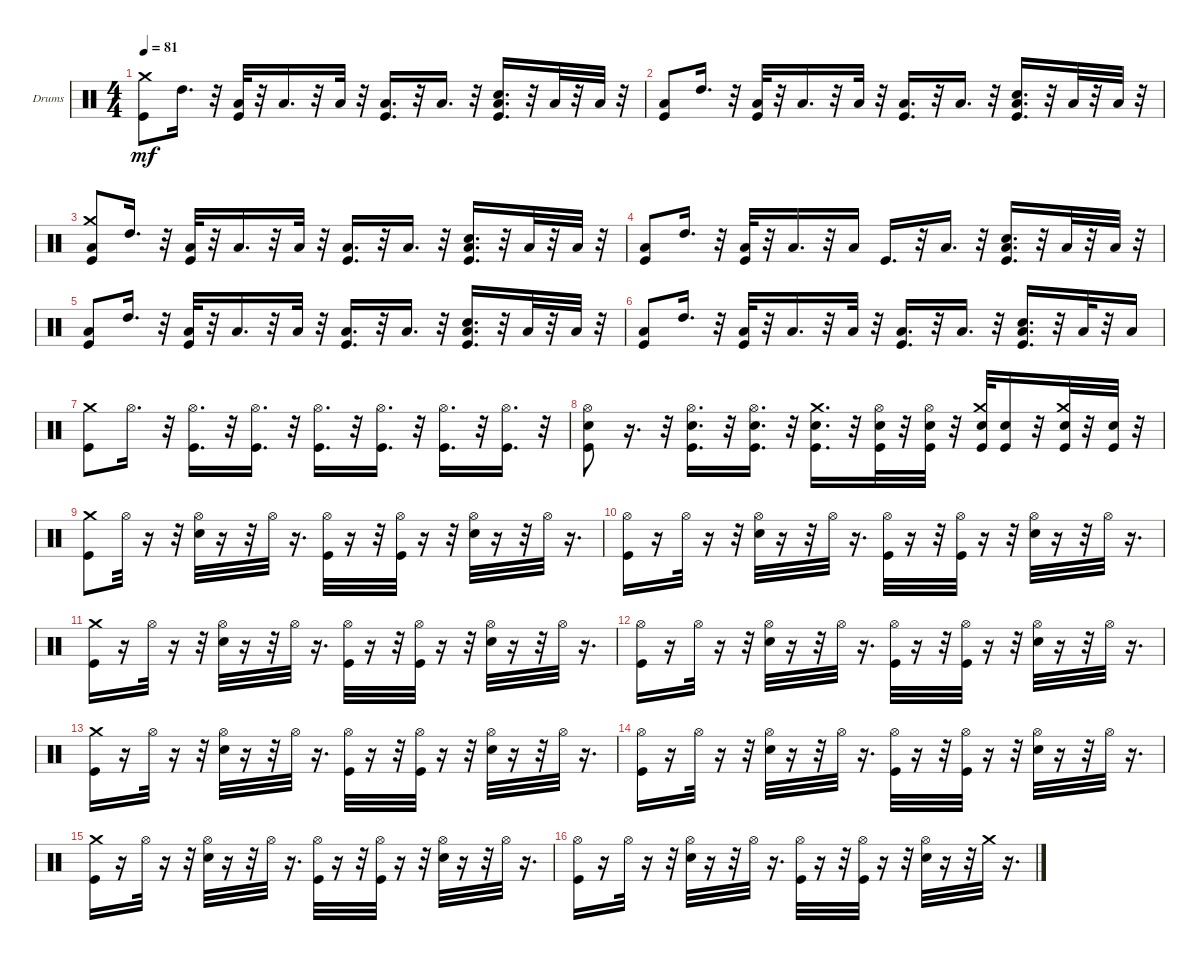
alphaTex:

\bracketExtendMode groupsimilarinstruments
\firstSystemTrackNameOrientation horizontal
\otherSystemsTrackNameOrientation horizontal
\track ("DRUMS" "Drums") {instrument percussion}
\staff {score}
\articulation defaults
\ts (4 4)
\tempo 81
\clef neutral
\ks c
("Kick (hit)" "Crash medium (hit)").8{dy mf} "High Tom (hit)".16{d} r.32 ("Kick (hit)" "Low Tom (hit)").32 r.32 "Low Tom (hit)".16{d} r.32 "Low Tom (hit)".32 r.32 ("Kick (hit)" "Low Tom (hit)").16{d} r.32 "Low Tom (hit)".16{d} r.32 ("Kick (hit)" "Snare (hit) 2" "Low Tom (hit)").16{d} r.32 "Low Tom (hit)".32 r.32 "Low Tom (hit)".32 r.32 |
("Kick (hit)" "Low Tom (hit)").8 "High Tom (hit)".16{d} r.32 ("Kick (hit)" "Low Tom (hit)").32 r.32 "Low Tom (hit)".16{d} r.32 "Low Tom (hit)".32 r.32 ("Kick (hit)" "Low Tom (hit)").16{d} r.32 "Low Tom (hit)".16{d} r.32 ("Kick (hit)" "Snare (hit) 2" "Low Tom (hit)").16{d} r.32 "Low Tom (hit)".32 r.32 "Low Tom (hit)".32 r.32 |
("Kick (hit)" "Low Tom (hit)" "Crash medium (hit)").8 "High Tom (hit)".16{d} r.32 ("Kick (hit)" "Low Tom (hit)").32 r.32 "Low Tom (hit)".16{d} r.32 "Low Tom (hit)".32 r.32 ("Kick (hit)" "Low Tom (hit)").16{d} r.32 "Low Tom (hit)".16{d} r.32 ("Kick (hit)" "Snare (hit) 2" "Low Tom (hit)").16{d} r.32 "Low Tom (hit)".32 r.32 "Low Tom (hit)".32 r.32 |
("Kick (hit)" "Low Tom (hit)").8 "High Tom (hit)".16{d} r.32 ("Kick (hit)" "Low Tom (hit)").32 r.32 "Low Tom (hit)".16{d} r.32 "Low Tom (hit)".16 "Kick (hit)".16{d} r.32 "Low Tom (hit)".16{d} r.32 ("Kick (hit)" "Snare (hit) 2" "Low Tom (hit)").16{d} r.32 "Low Tom (hit)".32 r.32 "Low Tom (hit)".32 r.32 |
("Kick (hit)" "Low Tom (hit)").8 "High Tom (hit)".16{d} r.32 ("Kick (hit)" "Low Tom (hit)").32 r.32 "Low Tom (hit)".16{d} r.32 "Low Tom (hit)".32 r.32 ("Kick (hit)" "Low Tom (hit)").16{d} r.32 "Low Tom (hit)".16{d} r.32 ("Kick (hit)" "Snare (hit) 2" "Low Tom (hit)").16{d} r.32 "Low Tom (hit)".32 r.32 "Low Tom (hit)".32 r.32 |
("Kick (hit)" "Low Tom (hit)").8 "High Tom (hit)".16{d} r.32 ("Kick (hit)" "Low Tom (hit)").32 r.32 "Low Tom (hit)".16{d} r.32 "Low Tom (hit)".32 r.32 ("Kick (hit)" "Low Tom (hit)").16{d} r.32 "Low Tom (hit)".16{d} r.32 ("Kick (hit)" "Snare (hit) 2" "Low Tom (hit)").16{d} r.32 "Low Tom (hit)".32 r.32 "Low Tom (hit)".16 |
("Kick (hit)" "Crash medium (hit)").8 "Hi-Hat (open)".16{d} r.32 ("Kick (hit)" "Hi-Hat (open)").16{d} r.32 ("Kick (hit)" "Hi-Hat (open)").16{d} r.32 ("Kick (hit)" "Hi-Hat (open)").16{d} r.32 ("Kick (hit)" "Hi-Hat (open)").16{d} r.32 ("Kick (hit)" "Hi-Hat (open)").16{d} r.32 ("Kick (hit)" "Hi-Hat (open)").16{d} r.32 |
("Kick (hit)" "Snare (hit) 2" "Hi-Hat (open)").8 r.16{d} r.32 ("Kick (hit)" "Snare (hit) 2" "Hi-Hat (open)").16{d} r.32 ("Kick (hit)" "Snare (hit) 2" "Hi-Hat (open)").16{d} r.32 ("Kick (hit)" "Snare (hit) 2" "Crash medium (hit)").16{d} r.32 ("Kick (hit)" "Snare (hit) 2" "Hi-Hat (open)").32 r.32 ("Kick (hit)" "Snare (hit) 2" "Hi-Hat (open)").32 r.32 ("Kick (hit)" "Snare (hit) 2" "Crash medium (hit)").32 ("Kick (hit)" "Snare (hit) 2").16 r.32 ("Kick (hit)" "Snare (hit) 2" "Crash medium (hit)").32 r.32 ("Kick (hit)" "Snare (hit) 2").32 r.32 |
("Kick (hit)" "Crash medium (hit)").8 "Hi-Hat (open)".32 r.16 r.32 ("Snare (hit) 2" "Hi-Hat (open)").32 r.16 r.32 "Hi-Hat (open)".32 r.16{d} ("Kick (hit)" "Hi-Hat (open)").32 r.16 r.32 ("Kick (hit)" "Hi-Hat (open)").32 r.16 r.32 ("Snare (hit) 2" "Hi-Hat (open)").32 r.16 r.32 "Hi-Hat (open)".32 r.16{d} |
("Kick (hit)" "Hi-Hat (open)").16 r.16 "Hi-Hat (open)".32 r.16 r.32 ("Snare (hit) 2" "Hi-Hat (open)").32 r.16 r.32 "Hi-Hat (open)".32 r.16{d} ("Kick (hit)" "Hi-Hat (open)").32 r.16 r.32 ("Kick (hit)" "Hi-Hat (open)").32 r.16 r.32 ("Snare (hit) 2" "Hi-Hat (open)").32 r.16 r.32 "Hi-Hat (open)".32 r.16{d} |
("Kick (hit)" "Crash medium (hit)").16 r.16 "Hi-Hat (open)".32 r.16 r.32 ("Snare (hit) 2" "Hi-Hat (open)").32 r.16 r.32 "Hi-Hat (open)".32 r.16{d} ("Kick (hit)" "Hi-Hat (open)").32 r.16 r.32 ("Kick (hit)" "Hi-Hat (open)").32 r.16 r.32 ("Snare (hit) 2" "Hi-Hat (open)").32 r.16 r.32 "Hi-Hat (open)".32 r.16{d} |
("Kick (hit)" "Hi-Hat (open)").16 r.16 "Hi-Hat (open)".32 r.16 r.32 ("Snare (hit) 2" "Hi-Hat (open)").32 r.16 r.32 "Hi-Hat (open)".32 r.16{d} ("Kick (hit)" "Hi-Hat (open)").32 r.16 r.32 ("Kick (hit)" "Hi-Hat (open)").32 r.16 r.32 ("Snare (hit) 2" "Hi-Hat (open)").32 r.16 r.32 "Hi-Hat (open)".32 r.16{d} |
("Kick (hit)" "Crash medium (hit)").16 r.16 "Hi-Hat (open)".32 r.16 r.32 ("Snare (hit) 2" "Hi-Hat (open)").32 r.16 r.32 "Hi-Hat (open)".32 r.16{d} ("Kick (hit)" "Hi-Hat (open)").32 r.16 r.32 ("Kick (hit)" "Hi-Hat (open)").32 r.16 r.32 ("Snare (hit) 2" "Hi-Hat (open)").32 r.16 r.32 "Hi-Hat (open)".32 r.16{d} |
("Kick (hit)" "Hi-Hat (open)").16 r.16 "Hi-Hat (open)".32 r.16 r.32 ("Snare (hit) 2" "Hi-Hat (open)").32 r.16 r.32 "Hi-Hat (open)".32 r.16{d} ("Kick (hit)" "Hi-Hat (open)").32 r.16 r.32 ("Kick (hit)" "Hi-Hat (open)").32 r.16 r.32 ("Snare (hit) 2" "Hi-Hat (open)").32 r.16 r.32 "Hi-Hat (open)".32 r.16{d} |
("Kick (hit)" "Crash medium (hit)").16 r.16 "Hi-Hat (open)".32 r.16 r.32 ("Snare (hit) 2" "Hi-Hat (open)").32 r.16 r.32 "Hi-Hat (open)".32 r.16{d} ("Kick (hit)" "Hi-Hat (open)").32 r.16 r.32 ("Kick (hit)" "Hi-Hat (open)").32 r.16 r.32 ("Snare (hit) 2" "Hi-Hat (open)").32 r.16 r.32 "Hi-Hat (open)".32 r.16{d} |
("Kick (hit)" "Hi-Hat (open)").16 r.16 "Hi-Hat (open)".32 r.16 r.32 ("Snare (hit) 2" "Hi-Hat (open)").32 r.16 r.32 "Hi-Hat (open)".32 r.16{d} ("Kick (hit)" "Hi-Hat (open)").32 r.16 r.32 ("Kick (hit)" "Hi-Hat (open)").32 r.16 r.32 ("Snare (hit) 2" "Hi-Hat (open)").32 r.16 r.32 "Crash medium (hit)".32 r.16{d}
